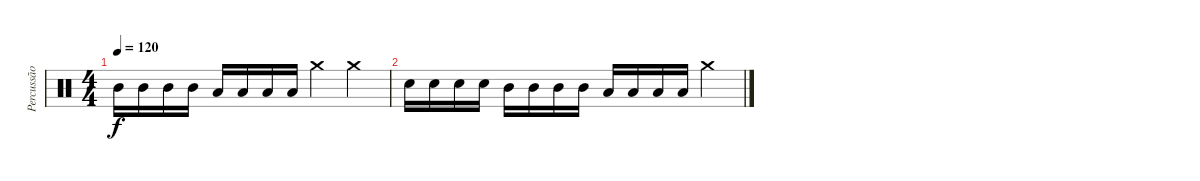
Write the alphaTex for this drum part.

\track ("Percussão" "Percussão") {instrument percussion}
\staff {score}
\articulation defaults
\ts (4 4)
\tempo 120
\clef neutral
\ks c "Mid Tom (hit)".16{dy f} "Mid Tom (hit)".16 "Mid Tom (hit)".16 "Mid Tom (hit)".16 "Low Tom (hit)".16 "Low Tom (hit)".16 "Low Tom (hit)".16 "Low Tom (hit)".16 "Crash medium (hit)".4 "Crash medium (hit)".4
|
"Snare (hit) 2".16 "Snare (hit) 2".16 "Snare (hit) 2".16 "Snare (hit) 2".16 "Mid Tom (hit)".16 "Mid Tom (hit)".16 "Mid Tom (hit)".16 "Mid Tom (hit)".16 "Low Tom (hit)".16 "Low Tom (hit)".16 "Low Tom (hit)".16 "Low Tom (hit)".16 "Crash medium (hit)".4
